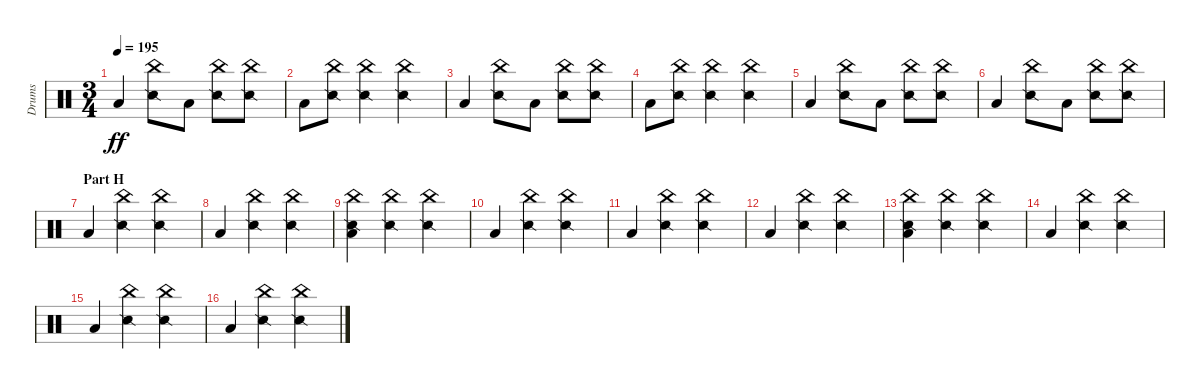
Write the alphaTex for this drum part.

\track ("Drums" "Drums") {instrument percussion}
\staff {score}
\articulation defaults
\ts (3 4)
\tempo 195
\clef neutral
\ks c "Low Floor Tom (hit)".4{dy ff}
("China (hit)" "Snare (side stick) 2").8 "Low Floor Tom (hit)".8 ("China (hit)" "Snare (side stick) 2").8 ("China (hit)" "Snare (side stick) 2").8 |
"Low Floor Tom (hit)".8 ("China (hit)" "Snare (side stick) 2").8 ("China (hit)" "Snare (side stick) 2").4 ("China (hit)" "Snare (side stick) 2").4 |
"Low Floor Tom (hit)".4 ("China (hit)" "Snare (side stick) 2").8 "Low Floor Tom (hit)".8 ("China (hit)" "Snare (side stick) 2").8 ("China (hit)" "Snare (side stick) 2").8 |
"Low Floor Tom (hit)".8 ("China (hit)" "Snare (side stick) 2").8 ("China (hit)" "Snare (side stick) 2").4 ("China (hit)" "Snare (side stick) 2").4 |
"Low Floor Tom (hit)".4 ("China (hit)" "Snare (side stick) 2").8 "Low Floor Tom (hit)".8 ("China (hit)" "Snare (side stick) 2").8 ("China (hit)" "Snare (side stick) 2").8 |
"Low Floor Tom (hit)".4 ("China (hit)" "Snare (side stick) 2").8 "Low Floor Tom (hit)".8 ("China (hit)" "Snare (side stick) 2").8 ("China (hit)" "Snare (side stick) 2").8 |
\section ("" "Part H")
"Low Floor Tom (hit)".4 ("China (hit)" "Snare (side stick) 2").4 ("China (hit)" "Snare (side stick) 2").4 |
"Low Floor Tom (hit)".4 ("China (hit)" "Snare (side stick) 2").4 ("China (hit)" "Snare (side stick) 2").4 |
("China (hit)" "Low Floor Tom (hit)" "Snare (side stick) 2").4 ("China (hit)" "Snare (side stick) 2").4 ("China (hit)" "Snare (side stick) 2").4 |
"Low Floor Tom (hit)".4 ("China (hit)" "Snare (side stick) 2").4 ("China (hit)" "Snare (side stick) 2").4 |
"Low Floor Tom (hit)".4 ("China (hit)" "Snare (side stick) 2").4 ("China (hit)" "Snare (side stick) 2").4 |
"Low Floor Tom (hit)".4 ("China (hit)" "Snare (side stick) 2").4 ("China (hit)" "Snare (side stick) 2").4 |
("China (hit)" "Low Floor Tom (hit)" "Snare (side stick) 2").4 ("China (hit)" "Snare (side stick) 2").4 ("China (hit)" "Snare (side stick) 2").4 |
"Low Floor Tom (hit)".4 ("China (hit)" "Snare (side stick) 2").4 ("China (hit)" "Snare (side stick) 2").4 |
"Low Floor Tom (hit)".4 ("China (hit)" "Snare (side stick) 2").4 ("China (hit)" "Snare (side stick) 2").4 |
"Low Floor Tom (hit)".4 ("China (hit)" "Snare (side stick) 2").4 ("China (hit)" "Snare (side stick) 2").4
